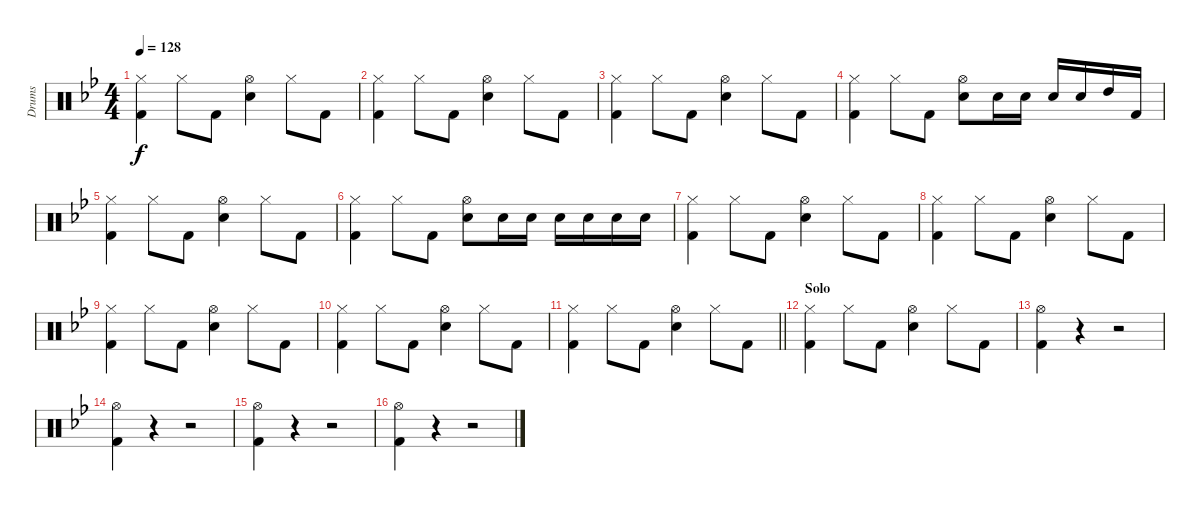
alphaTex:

\track ("Drums" "Drums") {instrument percussion}
\staff {score}
\articulation defaults
\ts (4 4)
\tempo 128
\clef neutral
\ks bb
("Hi-Hat (closed)" "Kick (hit) 2").4{dy f} "Hi-Hat (closed)".8 "Kick (hit) 2".8 ("Hi-Hat (open)" "Electric Snare (hit)").4 "Hi-Hat (closed)".8 "Kick (hit) 2".8 |
("Hi-Hat (closed)" "Kick (hit) 2").4 "Hi-Hat (closed)".8 "Kick (hit) 2".8 ("Hi-Hat (open)" "Electric Snare (hit)").4 "Hi-Hat (closed)".8 "Kick (hit) 2".8 |
("Hi-Hat (closed)" "Kick (hit) 2").4 "Hi-Hat (closed)".8 "Kick (hit) 2".8 ("Hi-Hat (open)" "Electric Snare (hit)").4 "Hi-Hat (closed)".8 "Kick (hit) 2".8 |
("Hi-Hat (closed)" "Kick (hit) 2").4 "Hi-Hat (closed)".8 "Kick (hit) 2".8 ("Hi-Hat (open)" "Electric Snare (hit)").8 "Electric Snare (hit)".16 "Electric Snare (hit)".16 "Electric Snare (hit)".16 "Electric Snare (hit)".16 "High Tom (hit)".16 "Kick (hit) 2".16 |
("Hi-Hat (closed)" "Kick (hit) 2").4 "Hi-Hat (closed)".8 "Kick (hit) 2".8 ("Hi-Hat (open)" "Electric Snare (hit)").4 "Hi-Hat (closed)".8 "Kick (hit) 2".8 |
("Hi-Hat (closed)" "Kick (hit) 2").4 "Hi-Hat (closed)".8 "Kick (hit) 2".8 ("Hi-Hat (open)" "Electric Snare (hit)").8 "Electric Snare (hit)".16 "Electric Snare (hit)".16 "Electric Snare (hit)".16 "Electric Snare (hit)".16 "Electric Snare (hit)".16 "Electric Snare (hit)".16 |
("Hi-Hat (closed)" "Kick (hit) 2").4 "Hi-Hat (closed)".8 "Kick (hit) 2".8 ("Hi-Hat (open)" "Electric Snare (hit)").4 "Hi-Hat (closed)".8 "Kick (hit) 2".8 |
("Hi-Hat (closed)" "Kick (hit) 2").4 "Hi-Hat (closed)".8 "Kick (hit) 2".8 ("Hi-Hat (open)" "Electric Snare (hit)").4 "Hi-Hat (closed)".8 "Kick (hit) 2".8 |
("Hi-Hat (closed)" "Kick (hit) 2").4 "Hi-Hat (closed)".8 "Kick (hit) 2".8 ("Hi-Hat (open)" "Electric Snare (hit)").4 "Hi-Hat (closed)".8 "Kick (hit) 2".8 |
("Hi-Hat (closed)" "Kick (hit) 2").4 "Hi-Hat (closed)".8 "Kick (hit) 2".8 ("Hi-Hat (open)" "Electric Snare (hit)").4 "Hi-Hat (closed)".8 "Kick (hit) 2".8 |
\barLineRight lightlight
("Hi-Hat (closed)" "Kick (hit) 2").4 "Hi-Hat (closed)".8 "Kick (hit) 2".8 ("Hi-Hat (open)" "Electric Snare (hit)").4 "Hi-Hat (closed)".8 "Kick (hit) 2".8 |
\section ("" "Solo")
("Hi-Hat (closed)" "Kick (hit) 2").4 "Hi-Hat (closed)".8 "Kick (hit) 2".8 ("Hi-Hat (open)" "Electric Snare (hit)").4 "Hi-Hat (closed)".8 "Kick (hit) 2".8 |
("Hi-Hat (open)" "Kick (hit) 2").4 r.4 r.2 |
("Hi-Hat (open)" "Kick (hit) 2").4 r.4 r.2 |
("Hi-Hat (open)" "Kick (hit) 2").4 r.4 r.2 |
("Hi-Hat (open)" "Kick (hit) 2").4 r.4 r.2
